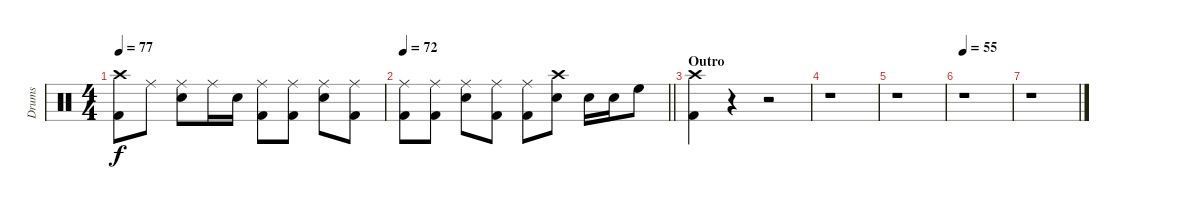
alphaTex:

\track ("Drums" "Drums") {instrument percussion}
\staff {score}
\articulation defaults
\ts (4 4)
\tempo 77
\clef neutral
\ks c
("Crash high (hit)" "Kick (hit) 2").8{dy f} "Ride (middle)".8 ("Ride (middle)" "Snare (hit) 2").8 "Ride (middle)".16 "Snare (hit) 2".16 ("Ride (middle)" "Kick (hit) 2").8 ("Ride (middle)" "Kick (hit) 2").8 ("Ride (middle)" "Snare (hit) 2").8 ("Ride (middle)" "Kick (hit) 2").8 |
\tempo 72
\barLineRight lightlight
("Ride (middle)" "Kick (hit) 2").8 ("Ride (middle)" "Kick (hit) 2").8 ("Ride (middle)" "Snare (hit) 2").8 ("Ride (middle)" "Kick (hit) 2").8 ("Ride (middle)" "Kick (hit) 2").8 ("Crash high (hit)" "Snare (hit) 2").8 "Snare (hit) 2".16 "Snare (hit) 2".16 "High Floor Tom (hit)".8 |
\section ("" "Outro")
("Crash high (hit)" "Kick (hit) 2").4 r.4 r.2 |
r.1 |
r.1 |
\tempo 55
r.1 |
r.1
